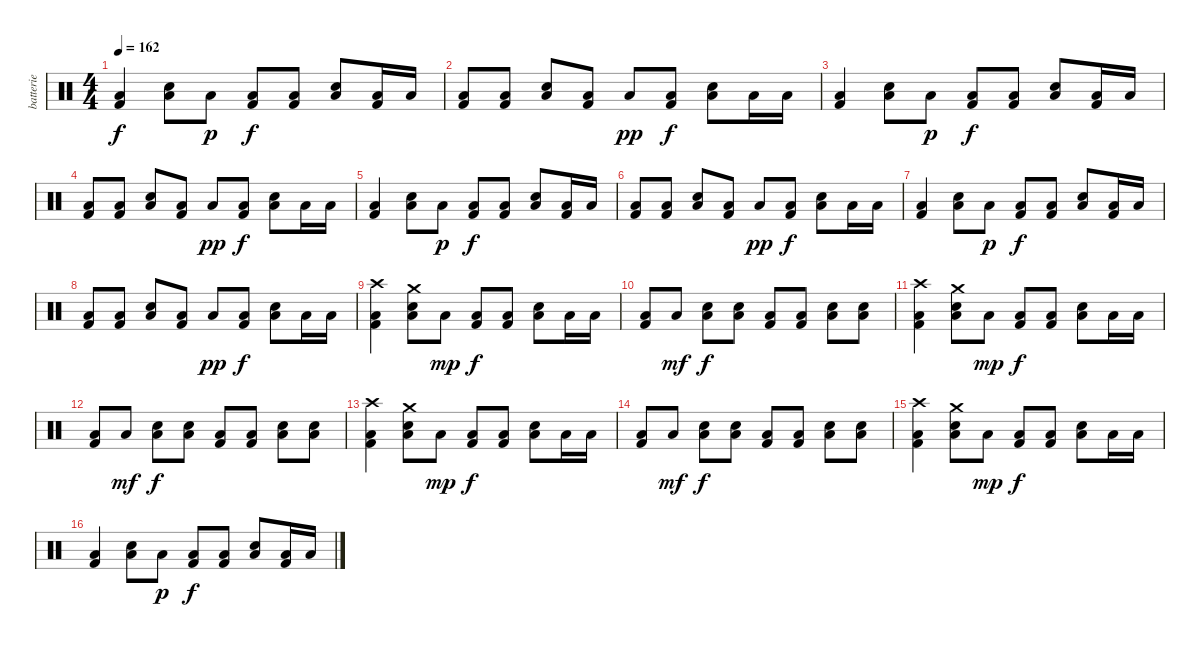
\track ("batterie" "batterie") {instrument percussion}
\staff {score}
\articulation defaults
\ts (4 4)
\tempo 162
\clef neutral
\ks c
("Low Floor Tom (hit)" "Kick (hit) 2").4{dy f} ("Low Floor Tom (hit)" "Electric Snare (hit)").8 "Low Floor Tom (hit)".8{dy p} ("Low Floor Tom (hit)" "Kick (hit) 2").8{dy f} ("Low Floor Tom (hit)" "Kick (hit) 2").8 ("Low Floor Tom (hit)" "Electric Snare (hit)").8 ("Low Floor Tom (hit)" "Kick (hit) 2").16 "Low Floor Tom (hit)".16 |
("Low Floor Tom (hit)" "Kick (hit) 2").8 ("Low Floor Tom (hit)" "Kick (hit) 2").8 ("Low Floor Tom (hit)" "Electric Snare (hit)").8 ("Low Floor Tom (hit)" "Kick (hit) 2").8 "Low Floor Tom (hit)".8{dy pp} ("Low Floor Tom (hit)" "Kick (hit) 2").8{dy f} ("Low Floor Tom (hit)" "Electric Snare (hit)").8 "Low Floor Tom (hit)".16 "Low Floor Tom (hit)".16 |
("Low Floor Tom (hit)" "Kick (hit) 2").4 ("Low Floor Tom (hit)" "Electric Snare (hit)").8 "Low Floor Tom (hit)".8{dy p} ("Low Floor Tom (hit)" "Kick (hit) 2").8{dy f} ("Low Floor Tom (hit)" "Kick (hit) 2").8 ("Low Floor Tom (hit)" "Electric Snare (hit)").8 ("Low Floor Tom (hit)" "Kick (hit) 2").16 "Low Floor Tom (hit)".16 |
("Low Floor Tom (hit)" "Kick (hit) 2").8 ("Low Floor Tom (hit)" "Kick (hit) 2").8 ("Low Floor Tom (hit)" "Electric Snare (hit)").8 ("Low Floor Tom (hit)" "Kick (hit) 2").8 "Low Floor Tom (hit)".8{dy pp} ("Low Floor Tom (hit)" "Kick (hit) 2").8{dy f} ("Low Floor Tom (hit)" "Electric Snare (hit)").8 "Low Floor Tom (hit)".16 "Low Floor Tom (hit)".16 |
("Low Floor Tom (hit)" "Kick (hit) 2").4 ("Low Floor Tom (hit)" "Electric Snare (hit)").8 "Low Floor Tom (hit)".8{dy p} ("Low Floor Tom (hit)" "Kick (hit) 2").8{dy f} ("Low Floor Tom (hit)" "Kick (hit) 2").8 ("Low Floor Tom (hit)" "Electric Snare (hit)").8 ("Low Floor Tom (hit)" "Kick (hit) 2").16 "Low Floor Tom (hit)".16 |
("Low Floor Tom (hit)" "Kick (hit) 2").8 ("Low Floor Tom (hit)" "Kick (hit) 2").8 ("Low Floor Tom (hit)" "Electric Snare (hit)").8 ("Low Floor Tom (hit)" "Kick (hit) 2").8 "Low Floor Tom (hit)".8{dy pp} ("Low Floor Tom (hit)" "Kick (hit) 2").8{dy f} ("Low Floor Tom (hit)" "Electric Snare (hit)").8 "Low Floor Tom (hit)".16 "Low Floor Tom (hit)".16 |
("Low Floor Tom (hit)" "Kick (hit) 2").4 ("Low Floor Tom (hit)" "Electric Snare (hit)").8 "Low Floor Tom (hit)".8{dy p} ("Low Floor Tom (hit)" "Kick (hit) 2").8{dy f} ("Low Floor Tom (hit)" "Kick (hit) 2").8 ("Low Floor Tom (hit)" "Electric Snare (hit)").8 ("Low Floor Tom (hit)" "Kick (hit) 2").16 "Low Floor Tom (hit)".16 |
("Low Floor Tom (hit)" "Kick (hit) 2").8 ("Low Floor Tom (hit)" "Kick (hit) 2").8 ("Low Floor Tom (hit)" "Electric Snare (hit)").8 ("Low Floor Tom (hit)" "Kick (hit) 2").8 "Low Floor Tom (hit)".8{dy pp} ("Low Floor Tom (hit)" "Kick (hit) 2").8{dy f} ("Low Floor Tom (hit)" "Electric Snare (hit)").8 "Low Floor Tom (hit)".16 "Low Floor Tom (hit)".16 |
("Low Floor Tom (hit)" "Crash high (hit)" "Kick (hit) 2").4 ("Low Floor Tom (hit)" "Crash medium (hit)" "Electric Snare (hit)").8 "Low Floor Tom (hit)".8{dy mp} ("Low Floor Tom (hit)" "Kick (hit) 2").8{dy f} ("Low Floor Tom (hit)" "Kick (hit) 2").8 ("Low Floor Tom (hit)" "Electric Snare (hit)").8 "Low Floor Tom (hit)".16 "Low Floor Tom (hit)".16 |
("Low Floor Tom (hit)" "Kick (hit) 2").8 "Low Floor Tom (hit)".8{dy mf} ("Low Floor Tom (hit)" "Electric Snare (hit)").8{dy f} ("Low Floor Tom (hit)" "Electric Snare (hit)").8 ("Low Floor Tom (hit)" "Kick (hit) 2").8 ("Low Floor Tom (hit)" "Kick (hit) 2").8 ("Low Floor Tom (hit)" "Electric Snare (hit)").8 ("Low Floor Tom (hit)" "Electric Snare (hit)").8 |
("Low Floor Tom (hit)" "Crash high (hit)" "Kick (hit) 2").4 ("Low Floor Tom (hit)" "Crash medium (hit)" "Electric Snare (hit)").8 "Low Floor Tom (hit)".8{dy mp} ("Low Floor Tom (hit)" "Kick (hit) 2").8{dy f} ("Low Floor Tom (hit)" "Kick (hit) 2").8 ("Low Floor Tom (hit)" "Electric Snare (hit)").8 "Low Floor Tom (hit)".16 "Low Floor Tom (hit)".16 |
("Low Floor Tom (hit)" "Kick (hit) 2").8 "Low Floor Tom (hit)".8{dy mf} ("Low Floor Tom (hit)" "Electric Snare (hit)").8{dy f} ("Low Floor Tom (hit)" "Electric Snare (hit)").8 ("Low Floor Tom (hit)" "Kick (hit) 2").8 ("Low Floor Tom (hit)" "Kick (hit) 2").8 ("Low Floor Tom (hit)" "Electric Snare (hit)").8 ("Low Floor Tom (hit)" "Electric Snare (hit)").8 |
("Low Floor Tom (hit)" "Crash high (hit)" "Kick (hit) 2").4 ("Low Floor Tom (hit)" "Crash medium (hit)" "Electric Snare (hit)").8 "Low Floor Tom (hit)".8{dy mp} ("Low Floor Tom (hit)" "Kick (hit) 2").8{dy f} ("Low Floor Tom (hit)" "Kick (hit) 2").8 ("Low Floor Tom (hit)" "Electric Snare (hit)").8 "Low Floor Tom (hit)".16 "Low Floor Tom (hit)".16 |
("Low Floor Tom (hit)" "Kick (hit) 2").8 "Low Floor Tom (hit)".8{dy mf} ("Low Floor Tom (hit)" "Electric Snare (hit)").8{dy f} ("Low Floor Tom (hit)" "Electric Snare (hit)").8 ("Low Floor Tom (hit)" "Kick (hit) 2").8 ("Low Floor Tom (hit)" "Kick (hit) 2").8 ("Low Floor Tom (hit)" "Electric Snare (hit)").8 ("Low Floor Tom (hit)" "Electric Snare (hit)").8 |
("Low Floor Tom (hit)" "Crash high (hit)" "Kick (hit) 2").4 ("Low Floor Tom (hit)" "Crash medium (hit)" "Electric Snare (hit)").8 "Low Floor Tom (hit)".8{dy mp} ("Low Floor Tom (hit)" "Kick (hit) 2").8{dy f} ("Low Floor Tom (hit)" "Kick (hit) 2").8 ("Low Floor Tom (hit)" "Electric Snare (hit)").8 "Low Floor Tom (hit)".16 "Low Floor Tom (hit)".16 |
("Low Floor Tom (hit)" "Kick (hit) 2").4 ("Low Floor Tom (hit)" "Electric Snare (hit)").8 "Low Floor Tom (hit)".8{dy p} ("Low Floor Tom (hit)" "Kick (hit) 2").8{dy f} ("Low Floor Tom (hit)" "Kick (hit) 2").8 ("Low Floor Tom (hit)" "Electric Snare (hit)").8 ("Low Floor Tom (hit)" "Kick (hit) 2").16 "Low Floor Tom (hit)".16
